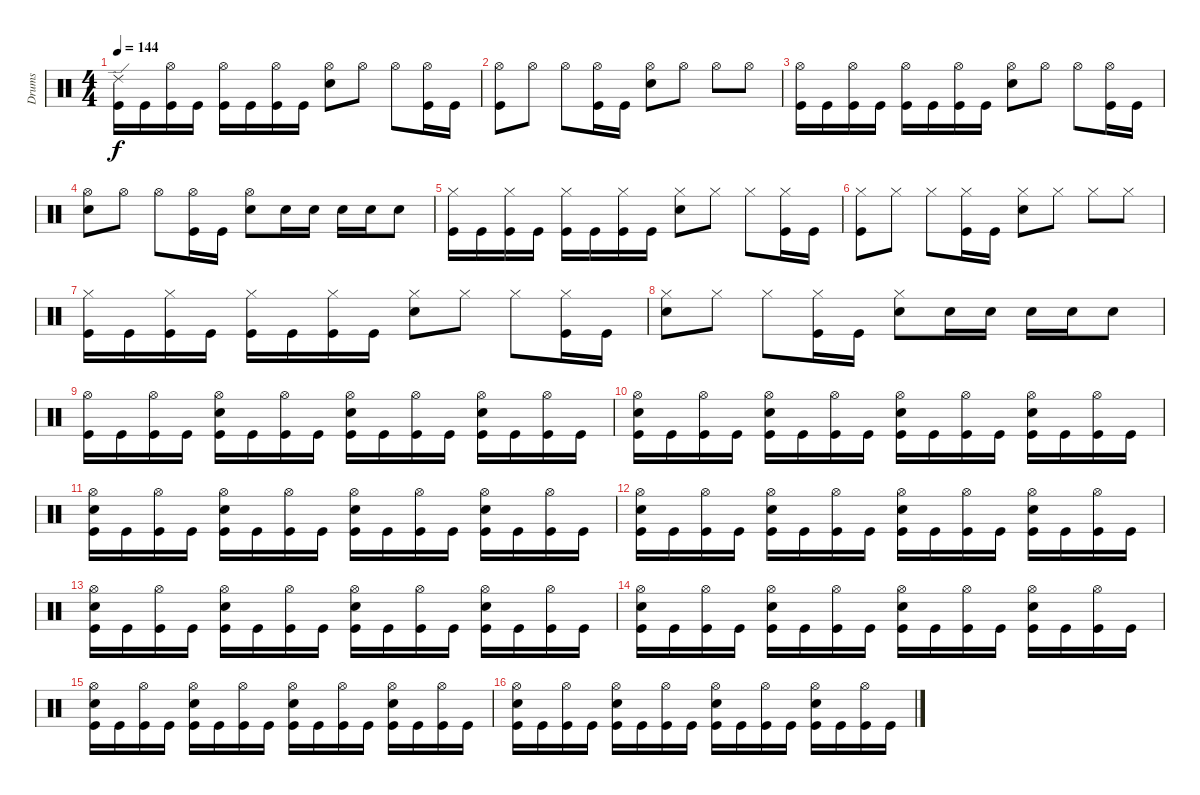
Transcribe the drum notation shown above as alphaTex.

\track ("Drums" "Drums") {instrument percussion}
\staff {score}
\articulation defaults
\ts (4 4)
\tempo 144
\clef neutral
\ks c
("Ride (edge) 2" "Kick (hit)").16{dy f} "Kick (hit)".16 ("Hi-Hat (open)" "Kick (hit)").16 "Kick (hit)".16 ("Hi-Hat (open)" "Kick (hit)").16 "Kick (hit)".16 ("Hi-Hat (open)" "Kick (hit)").16 "Kick (hit)".16 ("Hi-Hat (open)" "Snare (hit) 2").8 "Hi-Hat (open)".8 "Hi-Hat (open)".8 ("Hi-Hat (open)" "Kick (hit)").16 "Kick (hit)".16 |
("Hi-Hat (open)" "Kick (hit)").8 "Hi-Hat (open)".8 "Hi-Hat (open)".8 ("Hi-Hat (open)" "Kick (hit)").16 "Kick (hit)".16 ("Hi-Hat (open)" "Snare (hit) 2").8 "Hi-Hat (open)".8 "Hi-Hat (open)".8 "Hi-Hat (open)".8 |
("Hi-Hat (open)" "Kick (hit)").16 "Kick (hit)".16 ("Hi-Hat (open)" "Kick (hit)").16 "Kick (hit)".16 ("Hi-Hat (open)" "Kick (hit)").16 "Kick (hit)".16 ("Hi-Hat (open)" "Kick (hit)").16 "Kick (hit)".16 ("Hi-Hat (open)" "Snare (hit) 2").8 "Hi-Hat (open)".8 "Hi-Hat (open)".8 ("Hi-Hat (open)" "Kick (hit)").16 "Kick (hit)".16 |
("Hi-Hat (open)" "Snare (hit) 2").8 "Hi-Hat (open)".8 "Hi-Hat (open)".8 ("Hi-Hat (open)" "Kick (hit)").16 "Kick (hit)".16 ("Hi-Hat (open)" "Snare (hit) 2").8 "Snare (hit) 2".16 "Snare (hit) 2".16 "Snare (hit) 2".16 "Snare (hit) 2".16 "Snare (hit) 2".8 |
("Hi-Hat (closed)" "Kick (hit)").16 "Kick (hit)".16 ("Hi-Hat (closed)" "Kick (hit)").16 "Kick (hit)".16 ("Hi-Hat (closed)" "Kick (hit)").16 "Kick (hit)".16 ("Hi-Hat (closed)" "Kick (hit)").16 "Kick (hit)".16 ("Hi-Hat (closed)" "Snare (hit) 2").8 "Hi-Hat (closed)".8 "Hi-Hat (closed)".8 ("Hi-Hat (closed)" "Kick (hit)").16 "Kick (hit)".16 |
("Hi-Hat (closed)" "Kick (hit)").8 "Hi-Hat (closed)".8 "Hi-Hat (closed)".8 ("Hi-Hat (closed)" "Kick (hit)").16 "Kick (hit)".16 ("Hi-Hat (closed)" "Snare (hit) 2").8 "Hi-Hat (closed)".8 "Hi-Hat (closed)".8 "Hi-Hat (closed)".8 |
("Hi-Hat (closed)" "Kick (hit)").16 "Kick (hit)".16 ("Hi-Hat (closed)" "Kick (hit)").16 "Kick (hit)".16 ("Hi-Hat (closed)" "Kick (hit)").16 "Kick (hit)".16 ("Hi-Hat (closed)" "Kick (hit)").16 "Kick (hit)".16 ("Hi-Hat (closed)" "Snare (hit) 2").8 "Hi-Hat (closed)".8 "Hi-Hat (closed)".8 ("Hi-Hat (closed)" "Kick (hit)").16 "Kick (hit)".16 |
("Hi-Hat (closed)" "Snare (hit) 2").8 "Hi-Hat (closed)".8 "Hi-Hat (closed)".8 ("Hi-Hat (closed)" "Kick (hit)").16 "Kick (hit)".16 ("Hi-Hat (closed)" "Snare (hit) 2").8 "Snare (hit) 2".16 "Snare (hit) 2".16 "Snare (hit) 2".16 "Snare (hit) 2".16 "Snare (hit) 2".8 |
("Hi-Hat (open)" "Kick (hit)").16 "Kick (hit)".16 ("Hi-Hat (open)" "Kick (hit)").16 "Kick (hit)".16 ("Hi-Hat (open)" "Snare (hit) 2" "Kick (hit)").16 "Kick (hit)".16 ("Hi-Hat (open)" "Kick (hit)").16 "Kick (hit)".16 ("Hi-Hat (open)" "Snare (hit) 2" "Kick (hit)").16 "Kick (hit)".16 ("Hi-Hat (open)" "Kick (hit)").16 "Kick (hit)".16 ("Hi-Hat (open)" "Snare (hit) 2" "Kick (hit)").16 "Kick (hit)".16 ("Hi-Hat (open)" "Kick (hit)").16 "Kick (hit)".16 |
("Hi-Hat (open)" "Snare (hit) 2" "Kick (hit)").16 "Kick (hit)".16 ("Hi-Hat (open)" "Kick (hit)").16 "Kick (hit)".16 ("Hi-Hat (open)" "Snare (hit) 2" "Kick (hit)").16 "Kick (hit)".16 ("Hi-Hat (open)" "Kick (hit)").16 "Kick (hit)".16 ("Hi-Hat (open)" "Snare (hit) 2" "Kick (hit)").16 "Kick (hit)".16 ("Hi-Hat (open)" "Kick (hit)").16 "Kick (hit)".16 ("Hi-Hat (open)" "Snare (hit) 2" "Kick (hit)").16 "Kick (hit)".16 ("Hi-Hat (open)" "Kick (hit)").16 "Kick (hit)".16 |
("Hi-Hat (open)" "Snare (hit) 2" "Kick (hit)").16 "Kick (hit)".16 ("Hi-Hat (open)" "Kick (hit)").16 "Kick (hit)".16 ("Hi-Hat (open)" "Snare (hit) 2" "Kick (hit)").16 "Kick (hit)".16 ("Hi-Hat (open)" "Kick (hit)").16 "Kick (hit)".16 ("Hi-Hat (open)" "Snare (hit) 2" "Kick (hit)").16 "Kick (hit)".16 ("Hi-Hat (open)" "Kick (hit)").16 "Kick (hit)".16 ("Hi-Hat (open)" "Snare (hit) 2" "Kick (hit)").16 "Kick (hit)".16 ("Hi-Hat (open)" "Kick (hit)").16 "Kick (hit)".16 |
("Hi-Hat (open)" "Snare (hit) 2" "Kick (hit)").16 "Kick (hit)".16 ("Hi-Hat (open)" "Kick (hit)").16 "Kick (hit)".16 ("Hi-Hat (open)" "Snare (hit) 2" "Kick (hit)").16 "Kick (hit)".16 ("Hi-Hat (open)" "Kick (hit)").16 "Kick (hit)".16 ("Hi-Hat (open)" "Snare (hit) 2" "Kick (hit)").16 "Kick (hit)".16 ("Hi-Hat (open)" "Kick (hit)").16 "Kick (hit)".16 ("Hi-Hat (open)" "Snare (hit) 2" "Kick (hit)").16 "Kick (hit)".16 ("Hi-Hat (open)" "Kick (hit)").16 "Kick (hit)".16 |
("Hi-Hat (open)" "Snare (hit) 2" "Kick (hit)").16 "Kick (hit)".16 ("Hi-Hat (open)" "Kick (hit)").16 "Kick (hit)".16 ("Hi-Hat (open)" "Snare (hit) 2" "Kick (hit)").16 "Kick (hit)".16 ("Hi-Hat (open)" "Kick (hit)").16 "Kick (hit)".16 ("Hi-Hat (open)" "Snare (hit) 2" "Kick (hit)").16 "Kick (hit)".16 ("Hi-Hat (open)" "Kick (hit)").16 "Kick (hit)".16 ("Hi-Hat (open)" "Snare (hit) 2" "Kick (hit)").16 "Kick (hit)".16 ("Hi-Hat (open)" "Kick (hit)").16 "Kick (hit)".16 |
("Hi-Hat (open)" "Snare (hit) 2" "Kick (hit)").16 "Kick (hit)".16 ("Hi-Hat (open)" "Kick (hit)").16 "Kick (hit)".16 ("Hi-Hat (open)" "Snare (hit) 2" "Kick (hit)").16 "Kick (hit)".16 ("Hi-Hat (open)" "Kick (hit)").16 "Kick (hit)".16 ("Hi-Hat (open)" "Snare (hit) 2" "Kick (hit)").16 "Kick (hit)".16 ("Hi-Hat (open)" "Kick (hit)").16 "Kick (hit)".16 ("Hi-Hat (open)" "Snare (hit) 2" "Kick (hit)").16 "Kick (hit)".16 ("Hi-Hat (open)" "Kick (hit)").16 "Kick (hit)".16 |
("Hi-Hat (open)" "Snare (hit) 2" "Kick (hit)").16 "Kick (hit)".16 ("Hi-Hat (open)" "Kick (hit)").16 "Kick (hit)".16 ("Hi-Hat (open)" "Snare (hit) 2" "Kick (hit)").16 "Kick (hit)".16 ("Hi-Hat (open)" "Kick (hit)").16 "Kick (hit)".16 ("Hi-Hat (open)" "Snare (hit) 2" "Kick (hit)").16 "Kick (hit)".16 ("Hi-Hat (open)" "Kick (hit)").16 "Kick (hit)".16 ("Hi-Hat (open)" "Snare (hit) 2" "Kick (hit)").16 "Kick (hit)".16 ("Hi-Hat (open)" "Kick (hit)").16 "Kick (hit)".16 |
("Hi-Hat (open)" "Snare (hit) 2" "Kick (hit)").16 "Kick (hit)".16 ("Hi-Hat (open)" "Kick (hit)").16 "Kick (hit)".16 ("Hi-Hat (open)" "Snare (hit) 2" "Kick (hit)").16 "Kick (hit)".16 ("Hi-Hat (open)" "Kick (hit)").16 "Kick (hit)".16 ("Hi-Hat (open)" "Snare (hit) 2" "Kick (hit)").16 "Kick (hit)".16 ("Hi-Hat (open)" "Kick (hit)").16 "Kick (hit)".16 ("Hi-Hat (open)" "Snare (hit) 2" "Kick (hit)").16 "Kick (hit)".16 ("Hi-Hat (open)" "Kick (hit)").16 "Kick (hit)".16
